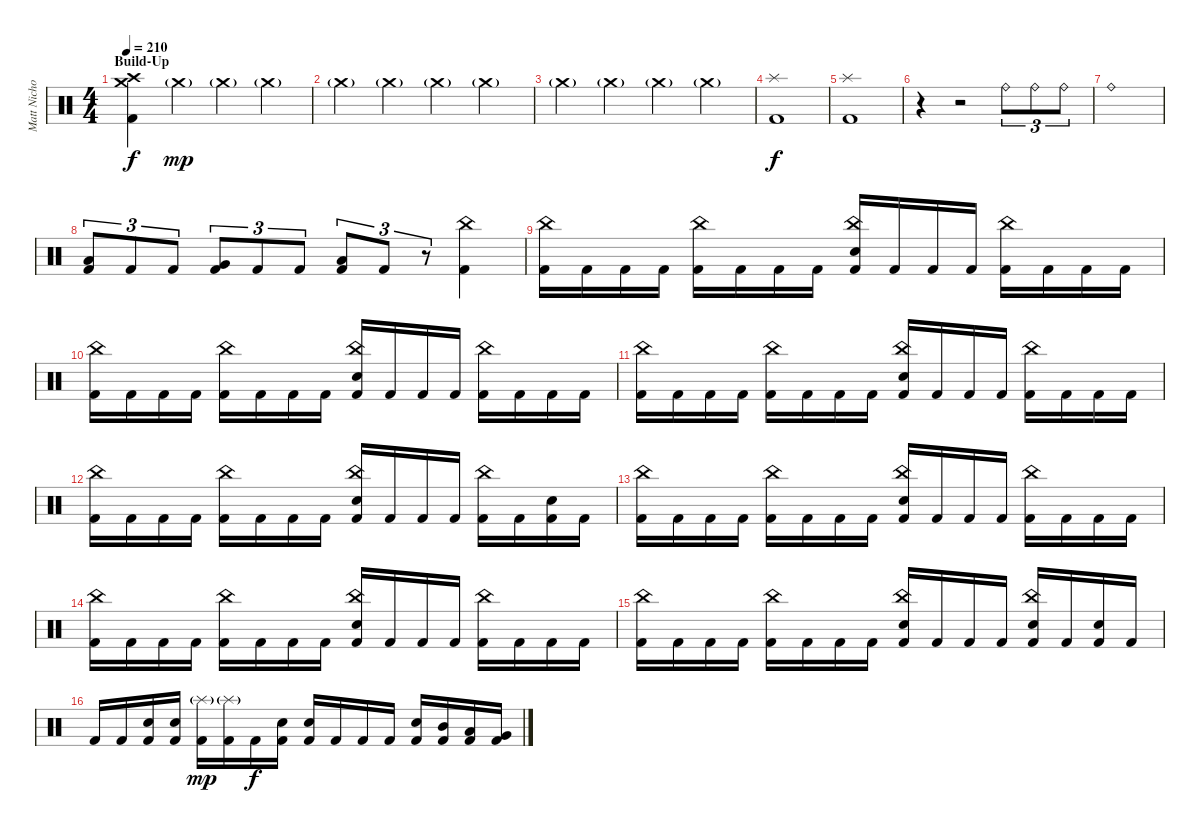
\track ("Matt Nicholls" "Matt Nicho") {instrument percussion}
\staff {score}
\articulation defaults
\ts (4 4)
\section ("" "Build-Up")
\tempo 210
\clef neutral
\ks c
("Crash high (hit)" "Crash medium (hit)" "Kick (hit) 2").4{dy f} "Crash medium (hit)"{g}.4{dy mp} "Crash medium (hit)"{g}.4 "Crash medium (hit)"{g}.4 |
"Crash medium (hit)"{g}.4 "Crash medium (hit)"{g}.4 "Crash medium (hit)"{g}.4 "Crash medium (hit)"{g}.4 |
"Crash medium (hit)"{g}.4 "Crash medium (hit)"{g}.4 "Crash medium (hit)"{g}.4 "Crash medium (hit)"{g}.4 |
("Splash (hit)" "Kick (hit) 2").1{dy f} |
("Splash (hit)" "Kick (hit) 2").1 |
r.4 r.2 "Ride (bell)".8{tu (3 2)} "Ride (bell)".8{tu (3 2)} "Ride (bell)".8{tu (3 2)} |
"Ride (bell)".1 |
("Low Tom (hit)" "Kick (hit) 2").8{tu (3 2)} "Kick (hit) 2".8{tu (3 2)} "Kick (hit) 2".8{tu (3 2)} ("Very Low Tom (hit)" "Kick (hit) 2").8{tu (3 2)} "Kick (hit) 2".8{tu (3 2)} "Kick (hit) 2".8{tu (3 2)} ("Low Floor Tom (hit)" "Kick (hit) 2").8{tu (3 2)} "Kick (hit) 2".8{tu (3 2)} r.8{tu (3 2)} ("China (hit)" "Kick (hit) 2").4 |
("China (hit)" "Kick (hit) 2").16 "Kick (hit) 2".16 "Kick (hit) 2".16 "Kick (hit) 2".16 ("China (hit)" "Kick (hit) 2").16 "Kick (hit) 2".16 "Kick (hit) 2".16 "Kick (hit) 2".16 ("China (hit)" "Snare (hit) 2" "Kick (hit) 2").16 "Kick (hit) 2".16 "Kick (hit) 2".16 "Kick (hit) 2".16 ("China (hit)" "Kick (hit) 2").16 "Kick (hit) 2".16 "Kick (hit) 2".16 "Kick (hit) 2".16 |
("China (hit)" "Kick (hit) 2").16 "Kick (hit) 2".16 "Kick (hit) 2".16 "Kick (hit) 2".16 ("China (hit)" "Kick (hit) 2").16 "Kick (hit) 2".16 "Kick (hit) 2".16 "Kick (hit) 2".16 ("China (hit)" "Snare (hit) 2" "Kick (hit) 2").16 "Kick (hit) 2".16 "Kick (hit) 2".16 "Kick (hit) 2".16 ("China (hit)" "Kick (hit) 2").16 "Kick (hit) 2".16 "Kick (hit) 2".16 "Kick (hit) 2".16 |
("China (hit)" "Kick (hit) 2").16 "Kick (hit) 2".16 "Kick (hit) 2".16 "Kick (hit) 2".16 ("China (hit)" "Kick (hit) 2").16 "Kick (hit) 2".16 "Kick (hit) 2".16 "Kick (hit) 2".16 ("China (hit)" "Snare (hit) 2" "Kick (hit) 2").16 "Kick (hit) 2".16 "Kick (hit) 2".16 "Kick (hit) 2".16 ("China (hit)" "Kick (hit) 2").16 "Kick (hit) 2".16 "Kick (hit) 2".16 "Kick (hit) 2".16 |
("China (hit)" "Kick (hit) 2").16 "Kick (hit) 2".16 "Kick (hit) 2".16 "Kick (hit) 2".16 ("China (hit)" "Kick (hit) 2").16 "Kick (hit) 2".16 "Kick (hit) 2".16 "Kick (hit) 2".16 ("China (hit)" "Snare (hit) 2" "Kick (hit) 2").16 "Kick (hit) 2".16 "Kick (hit) 2".16 "Kick (hit) 2".16 ("China (hit)" "Kick (hit) 2").16 "Kick (hit) 2".16 ("Snare (hit) 2" "Kick (hit) 2").16 "Kick (hit) 2".16 |
("China (hit)" "Kick (hit) 2").16 "Kick (hit) 2".16 "Kick (hit) 2".16 "Kick (hit) 2".16 ("China (hit)" "Kick (hit) 2").16 "Kick (hit) 2".16 "Kick (hit) 2".16 "Kick (hit) 2".16 ("China (hit)" "Snare (hit) 2" "Kick (hit) 2").16 "Kick (hit) 2".16 "Kick (hit) 2".16 "Kick (hit) 2".16 ("China (hit)" "Kick (hit) 2").16 "Kick (hit) 2".16 "Kick (hit) 2".16 "Kick (hit) 2".16 |
("China (hit)" "Kick (hit) 2").16 "Kick (hit) 2".16 "Kick (hit) 2".16 "Kick (hit) 2".16 ("China (hit)" "Kick (hit) 2").16 "Kick (hit) 2".16 "Kick (hit) 2".16 "Kick (hit) 2".16 ("China (hit)" "Snare (hit) 2" "Kick (hit) 2").16 "Kick (hit) 2".16 "Kick (hit) 2".16 "Kick (hit) 2".16 ("China (hit)" "Kick (hit) 2").16 "Kick (hit) 2".16 "Kick (hit) 2".16 "Kick (hit) 2".16 |
("China (hit)" "Kick (hit) 2").16 "Kick (hit) 2".16 "Kick (hit) 2".16 "Kick (hit) 2".16 ("China (hit)" "Kick (hit) 2").16 "Kick (hit) 2".16 "Kick (hit) 2".16 "Kick (hit) 2".16 ("China (hit)" "Snare (hit) 2" "Kick (hit) 2").16 "Kick (hit) 2".16 "Kick (hit) 2".16 "Kick (hit) 2".16 ("China (hit)" "Snare (hit) 2" "Kick (hit) 2").16 "Kick (hit) 2".16 ("Snare (hit) 2" "Kick (hit) 2").16 "Kick (hit) 2".16 |
"Kick (hit) 2".16 "Kick (hit) 2".16 ("Snare (hit) 2" "Kick (hit) 2").16 ("Snare (hit) 2" "Kick (hit) 2").16 ("Splash (hit)"{g} "Kick (hit) 2").16{dy mp} ("Splash (hit)"{g} "Kick (hit) 2").16 "Kick (hit) 2".16{dy f} ("Snare (hit) 2" "Kick (hit) 2").16 ("Snare (hit) 2" "Kick (hit) 2").16 "Kick (hit) 2".16 "Kick (hit) 2".16 "Kick (hit) 2".16 ("Snare (hit) 2" "Kick (hit) 2").16 ("Mid Tom (hit)" "Kick (hit) 2").16 ("Low Tom (hit)" "Kick (hit) 2").16 ("Very Low Tom (hit)" "Kick (hit) 2").16
